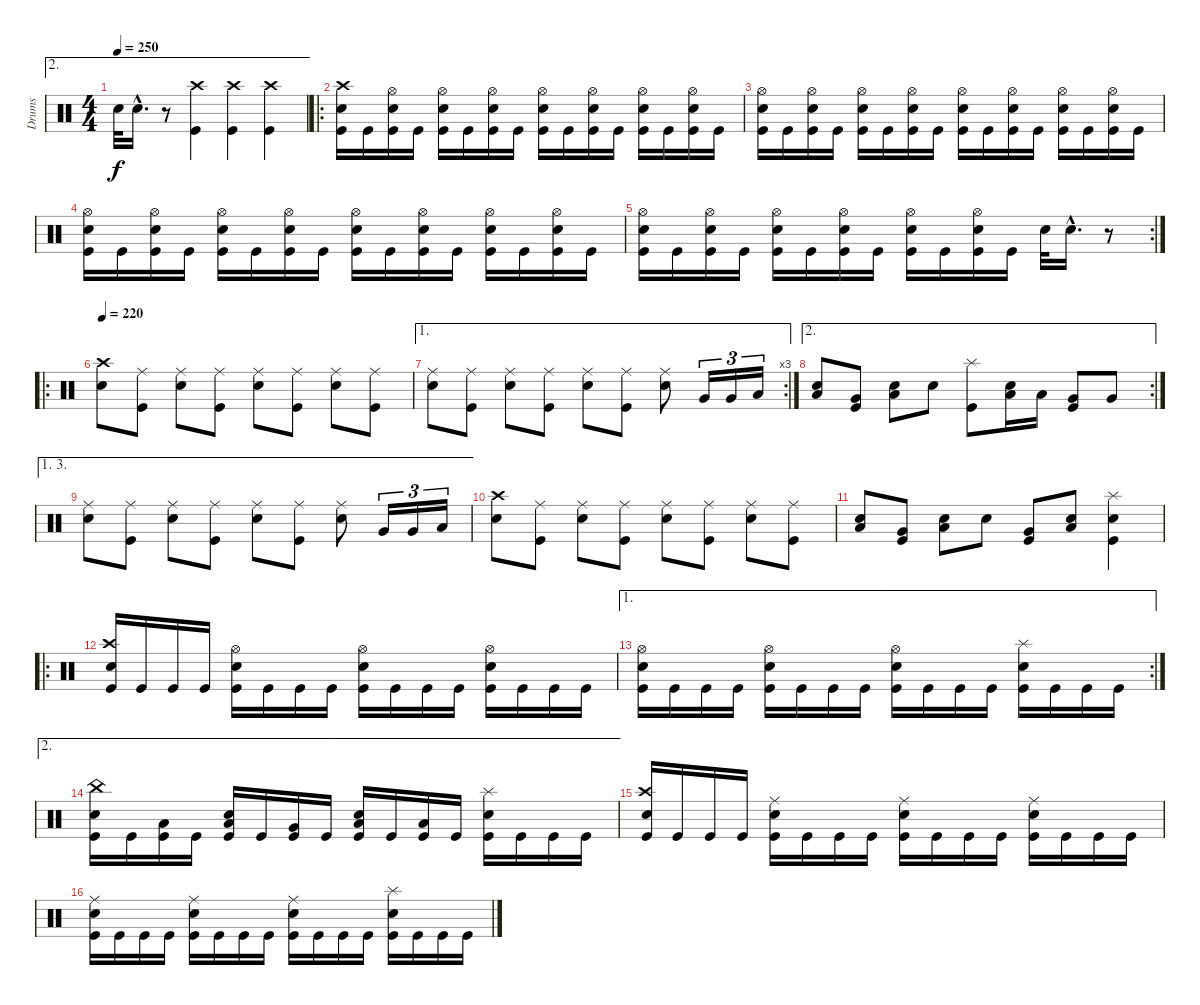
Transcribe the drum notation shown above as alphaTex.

\track ("Drums" "Drums") {instrument percussion}
\staff {score}
\articulation defaults
\ae 2
\ts (4 4)
\tempo 250
\clef neutral
\ks c "Electric Snare (hit)".32{dy f} "Electric Snare (hit)"{hac}.16{d}
r.8 ("Crash high (hit)" "Kick (hit)").4 ("Crash high (hit)" "Kick (hit)").4 ("Crash high (hit)" "Kick (hit)").4 |
\ro
("Crash high (hit)" "Electric Snare (hit)" "Kick (hit)").16 "Kick (hit)".16 ("Hi-Hat (open)" "Electric Snare (hit)" "Kick (hit)").16 "Kick (hit)".16 ("Hi-Hat (open)" "Electric Snare (hit)" "Kick (hit)").16 "Kick (hit)".16 ("Hi-Hat (open)" "Electric Snare (hit)" "Kick (hit)").16 "Kick (hit)".16 ("Hi-Hat (open)" "Electric Snare (hit)" "Kick (hit)").16 "Kick (hit)".16 ("Hi-Hat (open)" "Electric Snare (hit)" "Kick (hit)").16 "Kick (hit)".16 ("Hi-Hat (open)" "Electric Snare (hit)" "Kick (hit)").16 "Kick (hit)".16 ("Hi-Hat (open)" "Electric Snare (hit)" "Kick (hit)").16 "Kick (hit)".16 |
("Hi-Hat (open)" "Electric Snare (hit)" "Kick (hit)").16 "Kick (hit)".16 ("Hi-Hat (open)" "Electric Snare (hit)" "Kick (hit)").16 "Kick (hit)".16 ("Hi-Hat (open)" "Electric Snare (hit)" "Kick (hit)").16 "Kick (hit)".16 ("Hi-Hat (open)" "Electric Snare (hit)" "Kick (hit)").16 "Kick (hit)".16 ("Hi-Hat (open)" "Electric Snare (hit)" "Kick (hit)").16 "Kick (hit)".16 ("Hi-Hat (open)" "Electric Snare (hit)" "Kick (hit)").16 "Kick (hit)".16 ("Hi-Hat (open)" "Electric Snare (hit)" "Kick (hit)").16 "Kick (hit)".16 ("Hi-Hat (open)" "Electric Snare (hit)" "Kick (hit)").16 "Kick (hit)".16 |
("Hi-Hat (open)" "Electric Snare (hit)" "Kick (hit)").16 "Kick (hit)".16 ("Hi-Hat (open)" "Electric Snare (hit)" "Kick (hit)").16 "Kick (hit)".16 ("Hi-Hat (open)" "Electric Snare (hit)" "Kick (hit)").16 "Kick (hit)".16 ("Hi-Hat (open)" "Electric Snare (hit)" "Kick (hit)").16 "Kick (hit)".16 ("Hi-Hat (open)" "Electric Snare (hit)" "Kick (hit)").16 "Kick (hit)".16 ("Hi-Hat (open)" "Electric Snare (hit)" "Kick (hit)").16 "Kick (hit)".16 ("Hi-Hat (open)" "Electric Snare (hit)" "Kick (hit)").16 "Kick (hit)".16 ("Hi-Hat (open)" "Electric Snare (hit)" "Kick (hit)").16 "Kick (hit)".16 |
\rc 2
("Hi-Hat (open)" "Electric Snare (hit)" "Kick (hit)").16 "Kick (hit)".16 ("Hi-Hat (open)" "Electric Snare (hit)" "Kick (hit)").16 "Kick (hit)".16 ("Hi-Hat (open)" "Electric Snare (hit)" "Kick (hit)").16 "Kick (hit)".16 ("Hi-Hat (open)" "Electric Snare (hit)" "Kick (hit)").16 "Kick (hit)".16 ("Hi-Hat (open)" "Electric Snare (hit)" "Kick (hit)").16 "Kick (hit)".16 ("Hi-Hat (open)" "Electric Snare (hit)" "Kick (hit)").16 "Kick (hit)".16 "Electric Snare (hit)".32 "Electric Snare (hit)"{hac}.16{d} r.8 |
\ro
\tempo 220
("Crash high (hit)" "Electric Snare (hit)").8 ("Ride (middle)" "Kick (hit)").8 ("Ride (middle)" "Electric Snare (hit)").8 ("Ride (middle)" "Kick (hit)").8 ("Ride (middle)" "Electric Snare (hit)").8 ("Ride (middle)" "Kick (hit)").8 ("Ride (middle)" "Electric Snare (hit)").8 ("Ride (middle)" "Kick (hit)").8 |
\ae 1
\rc 3
("Ride (middle)" "Electric Snare (hit)").8 ("Ride (middle)" "Kick (hit)").8 ("Ride (middle)" "Electric Snare (hit)").8 ("Ride (middle)" "Kick (hit)").8 ("Ride (middle)" "Electric Snare (hit)").8 ("Ride (middle)" "Kick (hit)").8 ("Ride (middle)" "Electric Snare (hit)").8 "Very Low Tom (hit)".16{tu (3 2)} "Very Low Tom (hit)".16{tu (3 2)} "Low Floor Tom (hit)".16{tu (3 2)} |
\ae 2
\rc 2
("Low Tom (hit)" "Electric Snare (hit)").8 ("Very Low Tom (hit)" "Kick (hit)").8 ("Low Tom (hit)" "Electric Snare (hit)").8 "Electric Snare (hit)".8 ("Splash (hit)" "Kick (hit)").8 ("Low Tom (hit)" "Electric Snare (hit)").16 "Low Tom (hit)".16 ("Very Low Tom (hit)" "Kick (hit)").8 "Very Low Tom (hit)".8 |
\ae (1 3)
("Ride (middle)" "Electric Snare (hit)").8 ("Ride (middle)" "Kick (hit)").8 ("Ride (middle)" "Electric Snare (hit)").8 ("Ride (middle)" "Kick (hit)").8 ("Ride (middle)" "Electric Snare (hit)").8 ("Ride (middle)" "Kick (hit)").8 ("Ride (middle)" "Electric Snare (hit)").8 "Very Low Tom (hit)".16{tu (3 2)} "Very Low Tom (hit)".16{tu (3 2)} "Low Floor Tom (hit)".16{tu (3 2)} |
("Crash high (hit)" "Electric Snare (hit)").8 ("Ride (middle)" "Kick (hit)").8 ("Ride (middle)" "Electric Snare (hit)").8 ("Ride (middle)" "Kick (hit)").8 ("Ride (middle)" "Electric Snare (hit)").8 ("Ride (middle)" "Kick (hit)").8 ("Ride (middle)" "Electric Snare (hit)").8 ("Ride (middle)" "Kick (hit)").8 |
("Low Tom (hit)" "Electric Snare (hit)").8 ("Very Low Tom (hit)" "Kick (hit)").8 ("Low Tom (hit)" "Electric Snare (hit)").8 "Electric Snare (hit)".8 ("Very Low Tom (hit)" "Kick (hit)").8 ("Low Tom (hit)" "Electric Snare (hit)").8 ("Splash (hit)" "Electric Snare (hit)" "Kick (hit)").4 |
\ro
("Crash high (hit)" "Electric Snare (hit)" "Kick (hit)").16 "Kick (hit)".16 "Kick (hit)".16 "Kick (hit)".16 ("Hi-Hat (open)" "Electric Snare (hit)" "Kick (hit)").16 "Kick (hit)".16 "Kick (hit)".16 "Kick (hit)".16 ("Hi-Hat (open)" "Electric Snare (hit)" "Kick (hit)").16 "Kick (hit)".16 "Kick (hit)".16 "Kick (hit)".16 ("Hi-Hat (open)" "Electric Snare (hit)" "Kick (hit)").16 "Kick (hit)".16 "Kick (hit)".16 "Kick (hit)".16 |
\ae 1
\rc 2
("Hi-Hat (open)" "Electric Snare (hit)" "Kick (hit)").16 "Kick (hit)".16 "Kick (hit)".16 "Kick (hit)".16 ("Hi-Hat (open)" "Electric Snare (hit)" "Kick (hit)").16 "Kick (hit)".16 "Kick (hit)".16 "Kick (hit)".16 ("Hi-Hat (open)" "Electric Snare (hit)" "Kick (hit)").16 "Kick (hit)".16 "Kick (hit)".16 "Kick (hit)".16 ("Splash (hit)" "Electric Snare (hit)" "Kick (hit)").16 "Kick (hit)".16 "Kick (hit)".16 "Kick (hit)".16 |
\ae 2
("China (hit)" "Electric Snare (hit)" "Kick (hit)").16 "Kick (hit)".16 ("Low Tom (hit)" "Kick (hit)").16 "Kick (hit)".16 ("Low Tom (hit)" "Electric Snare (hit)" "Kick (hit)").16 "Kick (hit)".16 ("Very Low Tom (hit)" "Kick (hit)").16 "Kick (hit)".16 ("Low Tom (hit)" "Electric Snare (hit)" "Kick (hit)").16 "Kick (hit)".16 ("Low Tom (hit)" "Kick (hit)").16 "Kick (hit)".16 ("Splash (hit)" "Electric Snare (hit)" "Kick (hit)").16 "Kick (hit)".16 "Kick (hit)".16 "Kick (hit)".16 |
("Crash high (hit)" "Electric Snare (hit)" "Kick (hit)").16 "Kick (hit)".16 "Kick (hit)".16 "Kick (hit)".16 ("Ride (middle)" "Electric Snare (hit)" "Kick (hit)").16 "Kick (hit)".16 "Kick (hit)".16 "Kick (hit)".16 ("Ride (middle)" "Electric Snare (hit)" "Kick (hit)").16 "Kick (hit)".16 "Kick (hit)".16 "Kick (hit)".16 ("Ride (middle)" "Electric Snare (hit)" "Kick (hit)").16 "Kick (hit)".16 "Kick (hit)".16 "Kick (hit)".16 |
("Ride (middle)" "Electric Snare (hit)" "Kick (hit)").16 "Kick (hit)".16 "Kick (hit)".16 "Kick (hit)".16 ("Ride (middle)" "Electric Snare (hit)" "Kick (hit)").16 "Kick (hit)".16 "Kick (hit)".16 "Kick (hit)".16 ("Ride (middle)" "Electric Snare (hit)" "Kick (hit)").16 "Kick (hit)".16 "Kick (hit)".16 "Kick (hit)".16 ("Splash (hit)" "Electric Snare (hit)" "Kick (hit)").16 "Kick (hit)".16 "Kick (hit)".16 "Kick (hit)".16
